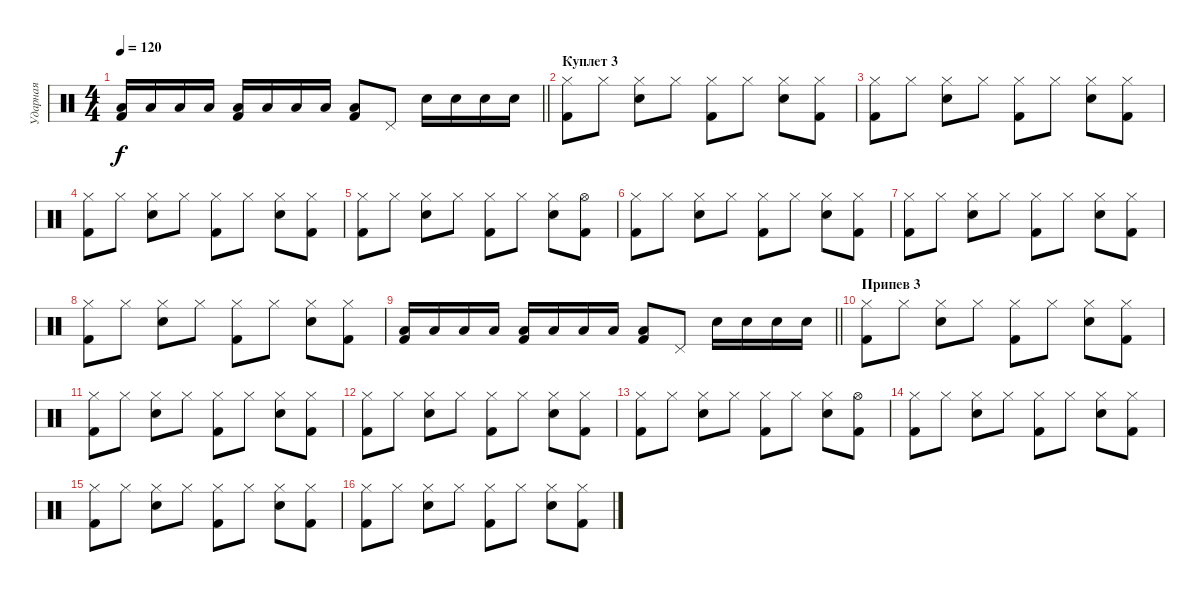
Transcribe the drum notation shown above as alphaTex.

\track ("Ударная" "Ударная") {instrument percussion}
\staff {score}
\articulation defaults
\ts (4 4)
\tempo 120
\clef neutral
\barLineRight lightlight
\ks c
("Low Tom (hit)" "Kick (hit) 2").16{dy f} "Low Tom (hit)".16 "Low Tom (hit)".16 "Low Tom (hit)".16 ("Low Tom (hit)" "Kick (hit) 2").16 "Low Tom (hit)".16 "Low Tom (hit)".16 "Low Tom (hit)".16 ("Low Tom (hit)" "Kick (hit) 2").8 "Pedal Hi-Hat (hit)".8 "Snare (hit) 2".16 "Snare (hit) 2".16 "Snare (hit) 2".16 "Snare (hit) 2".16 |
\section ("" "Куплет 3")
("Hi-Hat (closed)" "Kick (hit) 2").8 "Hi-Hat (closed)".8 ("Hi-Hat (closed)" "Electric Snare (hit)").8 "Hi-Hat (closed)".8 ("Hi-Hat (closed)" "Kick (hit) 2").8 "Hi-Hat (closed)".8 ("Hi-Hat (closed)" "Electric Snare (hit)").8 ("Hi-Hat (closed)" "Kick (hit) 2").8 |
("Hi-Hat (closed)" "Kick (hit) 2").8 "Hi-Hat (closed)".8 ("Hi-Hat (closed)" "Electric Snare (hit)").8 "Hi-Hat (closed)".8 ("Hi-Hat (closed)" "Kick (hit) 2").8 "Hi-Hat (closed)".8 ("Hi-Hat (closed)" "Electric Snare (hit)").8 ("Hi-Hat (closed)" "Kick (hit) 2").8 |
("Hi-Hat (closed)" "Kick (hit) 2").8 "Hi-Hat (closed)".8 ("Hi-Hat (closed)" "Electric Snare (hit)").8 "Hi-Hat (closed)".8 ("Hi-Hat (closed)" "Kick (hit) 2").8 "Hi-Hat (closed)".8 ("Hi-Hat (closed)" "Electric Snare (hit)").8 ("Hi-Hat (closed)" "Kick (hit) 2").8 |
("Hi-Hat (closed)" "Kick (hit) 2").8 "Hi-Hat (closed)".8 ("Hi-Hat (closed)" "Electric Snare (hit)").8 "Hi-Hat (closed)".8 ("Hi-Hat (closed)" "Kick (hit) 2").8 "Hi-Hat (closed)".8 ("Hi-Hat (closed)" "Electric Snare (hit)").8 ("Hi-Hat (open)" "Kick (hit) 2").8 |
("Hi-Hat (closed)" "Kick (hit) 2").8 "Hi-Hat (closed)".8 ("Hi-Hat (closed)" "Electric Snare (hit)").8 "Hi-Hat (closed)".8 ("Hi-Hat (closed)" "Kick (hit) 2").8 "Hi-Hat (closed)".8 ("Hi-Hat (closed)" "Electric Snare (hit)").8 ("Hi-Hat (closed)" "Kick (hit) 2").8 |
("Hi-Hat (closed)" "Kick (hit) 2").8 "Hi-Hat (closed)".8 ("Hi-Hat (closed)" "Electric Snare (hit)").8 "Hi-Hat (closed)".8 ("Hi-Hat (closed)" "Kick (hit) 2").8 "Hi-Hat (closed)".8 ("Hi-Hat (closed)" "Electric Snare (hit)").8 ("Hi-Hat (closed)" "Kick (hit) 2").8 |
("Hi-Hat (closed)" "Kick (hit) 2").8 "Hi-Hat (closed)".8 ("Hi-Hat (closed)" "Electric Snare (hit)").8 "Hi-Hat (closed)".8 ("Hi-Hat (closed)" "Kick (hit) 2").8 "Hi-Hat (closed)".8 ("Hi-Hat (closed)" "Electric Snare (hit)").8 ("Hi-Hat (closed)" "Kick (hit) 2").8 |
\barLineRight lightlight
("Low Tom (hit)" "Kick (hit) 2").16 "Low Tom (hit)".16 "Low Tom (hit)".16 "Low Tom (hit)".16 ("Low Tom (hit)" "Kick (hit) 2").16 "Low Tom (hit)".16 "Low Tom (hit)".16 "Low Tom (hit)".16 ("Low Tom (hit)" "Kick (hit) 2").8 "Pedal Hi-Hat (hit)".8 "Snare (hit) 2".16 "Snare (hit) 2".16 "Snare (hit) 2".16 "Snare (hit) 2".16 |
\section ("" "Припев 3")
("Hi-Hat (closed)" "Kick (hit) 2").8 "Hi-Hat (closed)".8 ("Hi-Hat (closed)" "Electric Snare (hit)").8 "Hi-Hat (closed)".8 ("Hi-Hat (closed)" "Kick (hit) 2").8 "Hi-Hat (closed)".8 ("Hi-Hat (closed)" "Electric Snare (hit)").8 ("Hi-Hat (closed)" "Kick (hit) 2").8 |
("Hi-Hat (closed)" "Kick (hit) 2").8 "Hi-Hat (closed)".8 ("Hi-Hat (closed)" "Electric Snare (hit)").8 "Hi-Hat (closed)".8 ("Hi-Hat (closed)" "Kick (hit) 2").8 "Hi-Hat (closed)".8 ("Hi-Hat (closed)" "Electric Snare (hit)").8 ("Hi-Hat (closed)" "Kick (hit) 2").8 |
("Hi-Hat (closed)" "Kick (hit) 2").8 "Hi-Hat (closed)".8 ("Hi-Hat (closed)" "Electric Snare (hit)").8 "Hi-Hat (closed)".8 ("Hi-Hat (closed)" "Kick (hit) 2").8 "Hi-Hat (closed)".8 ("Hi-Hat (closed)" "Electric Snare (hit)").8 ("Hi-Hat (closed)" "Kick (hit) 2").8 |
("Hi-Hat (closed)" "Kick (hit) 2").8 "Hi-Hat (closed)".8 ("Hi-Hat (closed)" "Electric Snare (hit)").8 "Hi-Hat (closed)".8 ("Hi-Hat (closed)" "Kick (hit) 2").8 "Hi-Hat (closed)".8 ("Hi-Hat (closed)" "Electric Snare (hit)").8 ("Hi-Hat (open)" "Kick (hit) 2").8 |
("Hi-Hat (closed)" "Kick (hit) 2").8 "Hi-Hat (closed)".8 ("Hi-Hat (closed)" "Electric Snare (hit)").8 "Hi-Hat (closed)".8 ("Hi-Hat (closed)" "Kick (hit) 2").8 "Hi-Hat (closed)".8 ("Hi-Hat (closed)" "Electric Snare (hit)").8 ("Hi-Hat (closed)" "Kick (hit) 2").8 |
("Hi-Hat (closed)" "Kick (hit) 2").8 "Hi-Hat (closed)".8 ("Hi-Hat (closed)" "Electric Snare (hit)").8 "Hi-Hat (closed)".8 ("Hi-Hat (closed)" "Kick (hit) 2").8 "Hi-Hat (closed)".8 ("Hi-Hat (closed)" "Electric Snare (hit)").8 ("Hi-Hat (closed)" "Kick (hit) 2").8 |
("Hi-Hat (closed)" "Kick (hit) 2").8 "Hi-Hat (closed)".8 ("Hi-Hat (closed)" "Electric Snare (hit)").8 "Hi-Hat (closed)".8 ("Hi-Hat (closed)" "Kick (hit) 2").8 "Hi-Hat (closed)".8 ("Hi-Hat (closed)" "Electric Snare (hit)").8 ("Hi-Hat (closed)" "Kick (hit) 2").8
